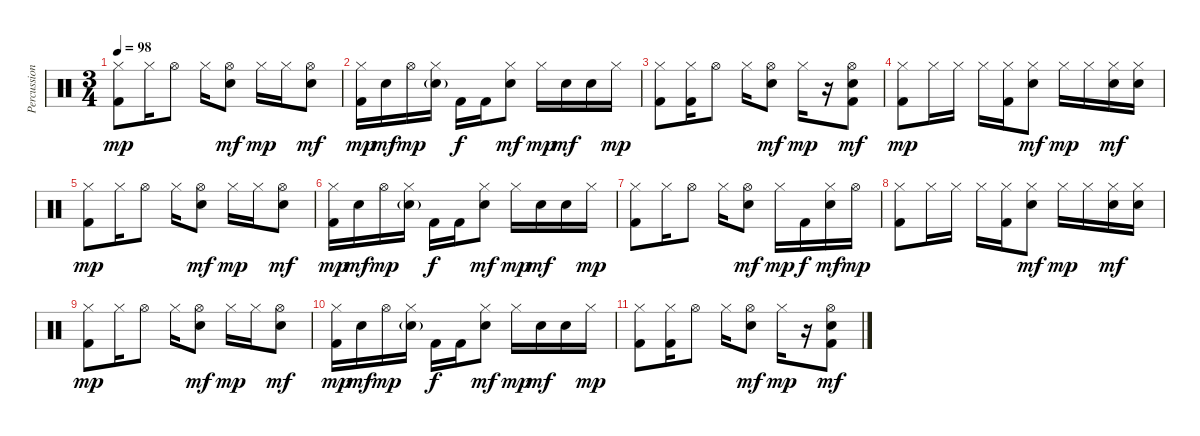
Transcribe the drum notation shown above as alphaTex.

\track ("Percussion" "Percussion") {instrument percussion}
\staff {score}
\articulation defaults
\ts (3 4)
\tempo 98
\clef neutral
\ks c
("Hi-Hat (closed)" "Kick (hit) 2").8{dy mp} "Hi-Hat (closed)".16 "Hi-Hat (open)".8 "Hi-Hat (closed)".16 ("Hi-Hat (open)" "Electric Snare (hit)").8{dy mf} "Hi-Hat (closed)".16{dy mp} "Hi-Hat (closed)".16 ("Hi-Hat (open)" "Electric Snare (hit)").8{dy mf} |
("Hi-Hat (closed)" "Kick (hit) 2").16{dy mp} "Electric Snare (hit)".16{dy mf} "Hi-Hat (open)".16{dy mp} ("Hi-Hat (closed)" "Electric Snare (hit)"{g}).16 "Kick (hit) 2".16{dy f} "Kick (hit) 2".16 ("Hi-Hat (closed)" "Electric Snare (hit)").8{dy mf} "Hi-Hat (closed)".16{dy mp} "Electric Snare (hit)".16{dy mf} "Electric Snare (hit)".16 "Hi-Hat (closed)".16{dy mp} |
("Hi-Hat (closed)" "Kick (hit) 2").8 ("Hi-Hat (closed)" "Kick (hit) 2").16 "Hi-Hat (open)".8 "Hi-Hat (closed)".16 ("Hi-Hat (open)" "Electric Snare (hit)").8{dy mf} "Hi-Hat (closed)".16{dy mp} r.16 ("Hi-Hat (open)" "Electric Snare (hit)" "Kick (hit) 2").8{dy mf} |
("Hi-Hat (closed)" "Kick (hit) 2").8{dy mp} "Hi-Hat (closed)".16 "Hi-Hat (closed)".16 "Hi-Hat (closed)".16 ("Hi-Hat (closed)" "Kick (hit) 2").16 ("Hi-Hat (closed)" "Electric Snare (hit)").8{dy mf} "Hi-Hat (closed)".16{dy mp} "Hi-Hat (closed)".16 ("Hi-Hat (closed)" "Electric Snare (hit)").16{dy mf} ("Hi-Hat (closed)" "Electric Snare (hit)").16 |
("Hi-Hat (closed)" "Kick (hit) 2").8{dy mp} "Hi-Hat (closed)".16 "Hi-Hat (open)".8 "Hi-Hat (closed)".16 ("Hi-Hat (open)" "Electric Snare (hit)").8{dy mf} "Hi-Hat (closed)".16{dy mp} "Hi-Hat (closed)".16 ("Hi-Hat (open)" "Electric Snare (hit)").8{dy mf} |
("Hi-Hat (closed)" "Kick (hit) 2").16{dy mp} "Electric Snare (hit)".16{dy mf} "Hi-Hat (open)".16{dy mp} ("Hi-Hat (closed)" "Electric Snare (hit)"{g}).16 "Kick (hit) 2".16{dy f} "Kick (hit) 2".16 ("Hi-Hat (closed)" "Electric Snare (hit)").8{dy mf} "Hi-Hat (closed)".16{dy mp} "Electric Snare (hit)".16{dy mf} "Electric Snare (hit)".16 "Hi-Hat (closed)".16{dy mp} |
("Hi-Hat (closed)" "Kick (hit) 2").8 "Hi-Hat (closed)".16 "Hi-Hat (open)".8 "Hi-Hat (closed)".16 ("Hi-Hat (open)" "Electric Snare (hit)").8{dy mf} "Hi-Hat (closed)".16{dy mp} "Kick (hit) 2".16{dy f} ("Hi-Hat (closed)" "Electric Snare (hit)").16{dy mf} "Hi-Hat (open)".16{dy mp} |
("Hi-Hat (closed)" "Kick (hit) 2").8 "Hi-Hat (closed)".16 "Hi-Hat (closed)".16 "Hi-Hat (closed)".16 ("Hi-Hat (closed)" "Kick (hit) 2").16 ("Hi-Hat (closed)" "Electric Snare (hit)").8{dy mf} "Hi-Hat (closed)".16{dy mp} "Hi-Hat (closed)".16 ("Hi-Hat (closed)" "Electric Snare (hit)").16{dy mf} ("Hi-Hat (closed)" "Electric Snare (hit)").16 |
("Hi-Hat (closed)" "Kick (hit) 2").8{dy mp} "Hi-Hat (closed)".16 "Hi-Hat (open)".8 "Hi-Hat (closed)".16 ("Hi-Hat (open)" "Electric Snare (hit)").8{dy mf} "Hi-Hat (closed)".16{dy mp} "Hi-Hat (closed)".16 ("Hi-Hat (open)" "Electric Snare (hit)").8{dy mf} |
("Hi-Hat (closed)" "Kick (hit) 2").16{dy mp} "Electric Snare (hit)".16{dy mf} "Hi-Hat (open)".16{dy mp} ("Hi-Hat (closed)" "Electric Snare (hit)"{g}).16 "Kick (hit) 2".16{dy f} "Kick (hit) 2".16 ("Hi-Hat (closed)" "Electric Snare (hit)").8{dy mf} "Hi-Hat (closed)".16{dy mp} "Electric Snare (hit)".16{dy mf} "Electric Snare (hit)".16 "Hi-Hat (closed)".16{dy mp} |
("Hi-Hat (closed)" "Kick (hit) 2").8 ("Hi-Hat (closed)" "Kick (hit) 2").16 "Hi-Hat (open)".8 "Hi-Hat (closed)".16 ("Hi-Hat (open)" "Electric Snare (hit)").8{dy mf} "Hi-Hat (closed)".16{dy mp} r.16 ("Hi-Hat (open)" "Electric Snare (hit)" "Kick (hit) 2").8{dy mf}
